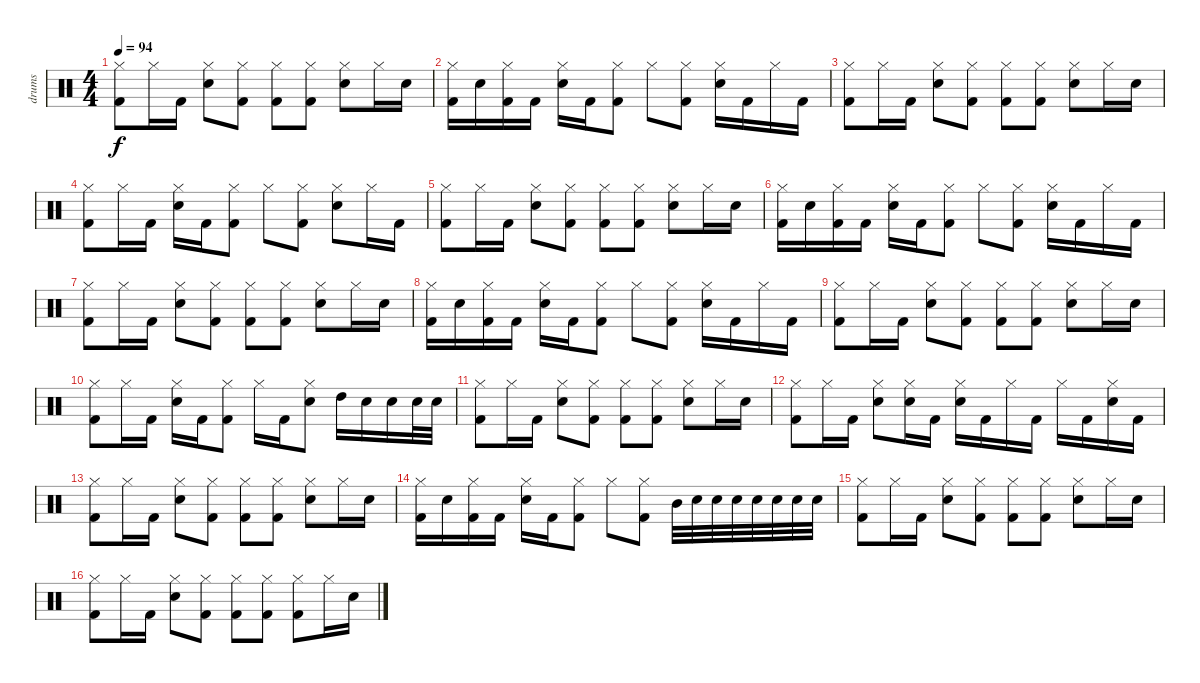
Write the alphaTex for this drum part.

\track ("drums" "drums") {instrument percussion}
\staff {score}
\articulation defaults
\ts (4 4)
\tempo 94
\clef neutral
\ks c
("Kick (hit) 2" "Hi-Hat (closed)").8{dy f} "Hi-Hat (closed)".16 "Kick (hit) 2".16 ("Hi-Hat (closed)" "Snare (hit) 2").8 ("Kick (hit) 2" "Hi-Hat (closed)").8 ("Kick (hit) 2" "Hi-Hat (closed)").8 ("Hi-Hat (closed)" "Kick (hit) 2").8 ("Hi-Hat (closed)" "Snare (hit) 2").8 "Hi-Hat (closed)".16 "Snare (hit) 2".16 |
("Hi-Hat (closed)" "Kick (hit) 2").16 "Snare (hit) 2".16 ("Hi-Hat (closed)" "Kick (hit) 2").16 "Kick (hit) 2".16 ("Hi-Hat (closed)" "Snare (hit) 2").16 "Kick (hit) 2".16 ("Hi-Hat (closed)" "Kick (hit) 2").8 "Hi-Hat (closed)".8 ("Hi-Hat (closed)" "Kick (hit) 2").8 ("Hi-Hat (closed)" "Snare (hit) 2").16 "Kick (hit) 2".16 "Hi-Hat (closed)".16 "Kick (hit) 2".16 |
("Kick (hit) 2" "Hi-Hat (closed)").8 "Hi-Hat (closed)".16 "Kick (hit) 2".16 ("Hi-Hat (closed)" "Snare (hit) 2").8 ("Kick (hit) 2" "Hi-Hat (closed)").8 ("Kick (hit) 2" "Hi-Hat (closed)").8 ("Hi-Hat (closed)" "Kick (hit) 2").8 ("Hi-Hat (closed)" "Snare (hit) 2").8 "Hi-Hat (closed)".16 "Snare (hit) 2".16 |
("Hi-Hat (closed)" "Kick (hit) 2").8 "Hi-Hat (closed)".16 "Kick (hit) 2".16 ("Hi-Hat (closed)" "Snare (hit) 2").16 "Kick (hit) 2".16 ("Hi-Hat (closed)" "Kick (hit) 2").8 "Hi-Hat (closed)".8 ("Hi-Hat (closed)" "Kick (hit) 2").8 ("Hi-Hat (closed)" "Snare (hit) 2").8 "Hi-Hat (closed)".16 "Kick (hit) 2".16 |
("Kick (hit) 2" "Hi-Hat (closed)").8 "Hi-Hat (closed)".16 "Kick (hit) 2".16 ("Hi-Hat (closed)" "Snare (hit) 2").8 ("Kick (hit) 2" "Hi-Hat (closed)").8 ("Kick (hit) 2" "Hi-Hat (closed)").8 ("Hi-Hat (closed)" "Kick (hit) 2").8 ("Hi-Hat (closed)" "Snare (hit) 2").8 "Hi-Hat (closed)".16 "Snare (hit) 2".16 |
("Hi-Hat (closed)" "Kick (hit) 2").16 "Snare (hit) 2".16 ("Hi-Hat (closed)" "Kick (hit) 2").16 "Kick (hit) 2".16 ("Hi-Hat (closed)" "Snare (hit) 2").16 "Kick (hit) 2".16 ("Hi-Hat (closed)" "Kick (hit) 2").8 "Hi-Hat (closed)".8 ("Hi-Hat (closed)" "Kick (hit) 2").8 ("Hi-Hat (closed)" "Snare (hit) 2").16 "Kick (hit) 2".16 "Hi-Hat (closed)".16 "Kick (hit) 2".16 |
("Kick (hit) 2" "Hi-Hat (closed)").8 "Hi-Hat (closed)".16 "Kick (hit) 2".16 ("Hi-Hat (closed)" "Snare (hit) 2").8 ("Kick (hit) 2" "Hi-Hat (closed)").8 ("Kick (hit) 2" "Hi-Hat (closed)").8 ("Hi-Hat (closed)" "Kick (hit) 2").8 ("Hi-Hat (closed)" "Snare (hit) 2").8 "Hi-Hat (closed)".16 "Snare (hit) 2".16 |
("Hi-Hat (closed)" "Kick (hit) 2").16 "Snare (hit) 2".16 ("Hi-Hat (closed)" "Kick (hit) 2").16 "Kick (hit) 2".16 ("Hi-Hat (closed)" "Snare (hit) 2").16 "Kick (hit) 2".16 ("Hi-Hat (closed)" "Kick (hit) 2").8 "Hi-Hat (closed)".8 ("Hi-Hat (closed)" "Kick (hit) 2").8 ("Hi-Hat (closed)" "Snare (hit) 2").16 "Kick (hit) 2".16 "Hi-Hat (closed)".16 "Kick (hit) 2".16 |
("Kick (hit) 2" "Hi-Hat (closed)").8 "Hi-Hat (closed)".16 "Kick (hit) 2".16 ("Hi-Hat (closed)" "Snare (hit) 2").8 ("Kick (hit) 2" "Hi-Hat (closed)").8 ("Kick (hit) 2" "Hi-Hat (closed)").8 ("Hi-Hat (closed)" "Kick (hit) 2").8 ("Hi-Hat (closed)" "Snare (hit) 2").8 "Hi-Hat (closed)".16 "Snare (hit) 2".16 |
("Kick (hit) 2" "Hi-Hat (closed)").8 "Hi-Hat (closed)".16 "Kick (hit) 2".16 ("Hi-Hat (closed)" "Snare (hit) 2").16 "Kick (hit) 2".16 ("Hi-Hat (closed)" "Kick (hit) 2").8 "Hi-Hat (closed)".16 "Kick (hit) 2".16 ("Snare (hit) 2" "Hi-Hat (closed)").8 "High Tom (hit)".16 "Snare (hit) 2".16 "Snare (hit) 2".16 "Snare (hit) 2".32 "Snare (hit) 2".32 |
("Kick (hit) 2" "Hi-Hat (closed)").8 "Hi-Hat (closed)".16 "Kick (hit) 2".16 ("Hi-Hat (closed)" "Snare (hit) 2").8 ("Kick (hit) 2" "Hi-Hat (closed)").8 ("Kick (hit) 2" "Hi-Hat (closed)").8 ("Hi-Hat (closed)" "Kick (hit) 2").8 ("Hi-Hat (closed)" "Snare (hit) 2").8 "Hi-Hat (closed)".16 "Snare (hit) 2".16 |
("Hi-Hat (closed)" "Kick (hit) 2").8 "Hi-Hat (closed)".16 "Kick (hit) 2".16 ("Hi-Hat (closed)" "Snare (hit) 2").8 ("Hi-Hat (closed)" "Snare (hit) 2").16 "Kick (hit) 2".16 ("Snare (hit) 2" "Hi-Hat (closed)").16 "Kick (hit) 2".16 "Hi-Hat (closed)".16 "Kick (hit) 2".16 "Hi-Hat (closed)".16 "Kick (hit) 2".16 ("Hi-Hat (closed)" "Snare (hit) 2").16 "Kick (hit) 2".16 |
("Kick (hit) 2" "Hi-Hat (closed)").8 "Hi-Hat (closed)".16 "Kick (hit) 2".16 ("Hi-Hat (closed)" "Snare (hit) 2").8 ("Kick (hit) 2" "Hi-Hat (closed)").8 ("Kick (hit) 2" "Hi-Hat (closed)").8 ("Hi-Hat (closed)" "Kick (hit) 2").8 ("Hi-Hat (closed)" "Snare (hit) 2").8 "Hi-Hat (closed)".16 "Snare (hit) 2".16 |
("Hi-Hat (closed)" "Kick (hit) 2").16 "Snare (hit) 2".16 ("Hi-Hat (closed)" "Kick (hit) 2").16 "Kick (hit) 2".16 ("Hi-Hat (closed)" "Snare (hit) 2").16 "Kick (hit) 2".16 ("Kick (hit) 2" "Hi-Hat (closed)").8 "Hi-Hat (closed)".8 ("Hi-Hat (closed)" "Kick (hit) 2").8 "Mid Tom (hit)".32 "Snare (hit) 2".32 "Snare (hit) 2".32 "Snare (hit) 2".32 "Snare (hit) 2".32 "Snare (hit) 2".32 "Snare (hit) 2".32 "Snare (hit) 2".32 |
("Kick (hit) 2" "Hi-Hat (closed)").8 "Hi-Hat (closed)".16 "Kick (hit) 2".16 ("Hi-Hat (closed)" "Snare (hit) 2").8 ("Kick (hit) 2" "Hi-Hat (closed)").8 ("Kick (hit) 2" "Hi-Hat (closed)").8 ("Hi-Hat (closed)" "Kick (hit) 2").8 ("Hi-Hat (closed)" "Snare (hit) 2").8 "Hi-Hat (closed)".16 "Snare (hit) 2".16 |
("Kick (hit) 2" "Hi-Hat (closed)").8 "Hi-Hat (closed)".16 "Kick (hit) 2".16 ("Hi-Hat (closed)" "Snare (hit) 2").8 ("Kick (hit) 2" "Hi-Hat (closed)").8 ("Kick (hit) 2" "Hi-Hat (closed)").8 ("Hi-Hat (closed)" "Kick (hit) 2").8 ("Hi-Hat (closed)" "Kick (hit) 2").8 "Hi-Hat (closed)".16 "Snare (hit) 2".16
